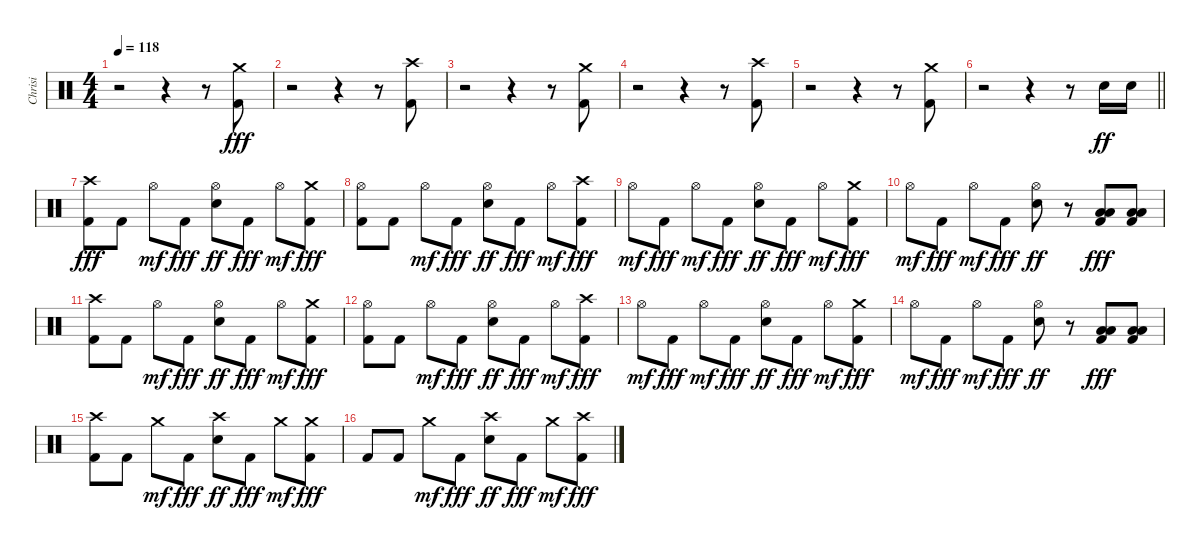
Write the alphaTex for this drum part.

\track ("Chrisi" "Chrisi") {instrument percussion}
\staff {score}
\articulation defaults
\ts (4 4)
\tempo 118
\clef neutral
\ks c
r.2{dy fff} r.4 r.8 ("Crash medium (hit)" "Kick (hit) 2").8 |
r.2 r.4 r.8 ("Crash high (hit)" "Kick (hit) 2").8 |
r.2 r.4 r.8 ("Crash medium (hit)" "Kick (hit) 2").8 |
r.2 r.4 r.8 ("Crash high (hit)" "Kick (hit) 2").8 |
r.2 r.4 r.8 ("Crash medium (hit)" "Kick (hit) 2").8 |
\barLineRight lightlight
r.2 r.4 r.8 "Electric Snare (hit)".16{dy ff} "Electric Snare (hit)".16 |
("Crash high (hit)" "Kick (hit) 2").8{dy fff} "Kick (hit) 2".8 "Hi-Hat (open)".8{dy mf} "Kick (hit) 2".8{dy fff} ("Hi-Hat (open)" "Electric Snare (hit)").8{dy ff} "Kick (hit) 2".8{dy fff} "Hi-Hat (open)".8{dy mf} ("Crash medium (hit)" "Kick (hit) 2").8{dy fff} |
("Hi-Hat (open)" "Kick (hit) 2").8 "Kick (hit) 2".8 "Hi-Hat (open)".8{dy mf} "Kick (hit) 2".8{dy fff} ("Hi-Hat (open)" "Electric Snare (hit)").8{dy ff} "Kick (hit) 2".8{dy fff} "Hi-Hat (open)".8{dy mf} ("Crash high (hit)" "Kick (hit) 2").8{dy fff} |
"Hi-Hat (open)".8{dy mf} "Kick (hit) 2".8{dy fff} "Hi-Hat (open)".8{dy mf} "Kick (hit) 2".8{dy fff} ("Hi-Hat (open)" "Electric Snare (hit)").8{dy ff} "Kick (hit) 2".8{dy fff} "Hi-Hat (open)".8{dy mf} ("Crash medium (hit)" "Kick (hit) 2").8{dy fff} |
"Hi-Hat (open)".8{dy mf} "Kick (hit) 2".8{dy fff} "Hi-Hat (open)".8{dy mf} "Kick (hit) 2".8{dy fff} ("Hi-Hat (open)" "Electric Snare (hit)").8{dy ff} r.8 ("Low Floor Tom (hit)" "Low Floor Tom (hit)" "Kick (hit) 2").8{dy fff} ("Low Floor Tom (hit)" "Low Floor Tom (hit)" "Kick (hit) 2").8 |
("Crash high (hit)" "Kick (hit) 2").8 "Kick (hit) 2".8 "Hi-Hat (open)".8{dy mf} "Kick (hit) 2".8{dy fff} ("Hi-Hat (open)" "Electric Snare (hit)").8{dy ff} "Kick (hit) 2".8{dy fff} "Hi-Hat (open)".8{dy mf} ("Crash medium (hit)" "Kick (hit) 2").8{dy fff} |
("Hi-Hat (open)" "Kick (hit) 2").8 "Kick (hit) 2".8 "Hi-Hat (open)".8{dy mf} "Kick (hit) 2".8{dy fff} ("Hi-Hat (open)" "Electric Snare (hit)").8{dy ff} "Kick (hit) 2".8{dy fff} "Hi-Hat (open)".8{dy mf} ("Crash high (hit)" "Kick (hit) 2").8{dy fff} |
"Hi-Hat (open)".8{dy mf} "Kick (hit) 2".8{dy fff} "Hi-Hat (open)".8{dy mf} "Kick (hit) 2".8{dy fff} ("Hi-Hat (open)" "Electric Snare (hit)").8{dy ff} "Kick (hit) 2".8{dy fff} "Hi-Hat (open)".8{dy mf} ("Crash medium (hit)" "Kick (hit) 2").8{dy fff} |
"Hi-Hat (open)".8{dy mf} "Kick (hit) 2".8{dy fff} "Hi-Hat (open)".8{dy mf} "Kick (hit) 2".8{dy fff} ("Hi-Hat (open)" "Electric Snare (hit)").8{dy ff} r.8 ("Low Floor Tom (hit)" "Low Floor Tom (hit)" "Kick (hit) 2").8{dy fff} ("Low Floor Tom (hit)" "Low Floor Tom (hit)" "Kick (hit) 2").8 |
("Crash high (hit)" "Kick (hit) 2").8 "Kick (hit) 2".8 "Crash medium (hit)".8{dy mf} "Kick (hit) 2".8{dy fff} ("Crash high (hit)" "Electric Snare (hit)").8{dy ff} "Kick (hit) 2".8{dy fff} "Crash medium (hit)".8{dy mf} ("Crash medium (hit)" "Kick (hit) 2").8{dy fff} |
"Kick (hit) 2".8 "Kick (hit) 2".8 "Crash medium (hit)".8{dy mf} "Kick (hit) 2".8{dy fff} ("Crash high (hit)" "Electric Snare (hit)").8{dy ff} "Kick (hit) 2".8{dy fff} "Crash medium (hit)".8{dy mf} ("Crash high (hit)" "Kick (hit) 2").8{dy fff}
